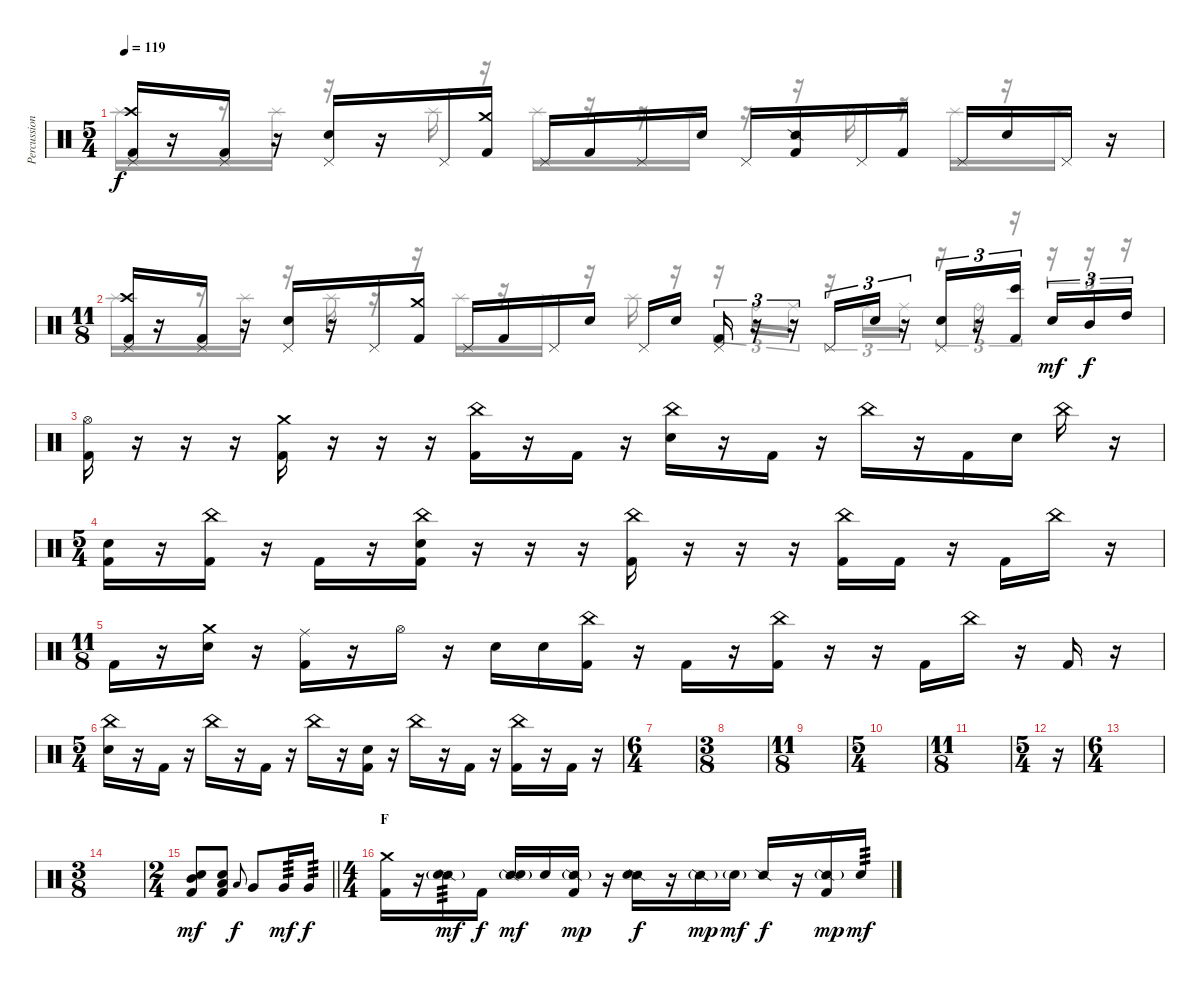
\track ("Percussion" "Percussion") {instrument percussion}
\staff {score}
\articulation defaults
\voice
\ts (5 4)
\tempo 119
\clef neutral
\ks c
("Crash high (hit)" "Pedal Hi-Hat (hit)" "Kick (hit) 2").16{dy f} r.16 ("Pedal Hi-Hat (hit)" "Kick (hit) 2").16 r.16 ("Pedal Hi-Hat (hit)" "Snare (hit) 2").16 r.16 "Pedal Hi-Hat (hit)".16 ("Crash medium (hit)" "Kick (hit) 2").16 "Pedal Hi-Hat (hit)".16 "Kick (hit) 2".16 "Pedal Hi-Hat (hit)".16 "Snare (hit) 2".16 "Pedal Hi-Hat (hit)".16 ("Snare (side stick) 2" "Kick (hit) 2").16 "Pedal Hi-Hat (hit)".16 "Kick (hit) 2".16 "Pedal Hi-Hat (hit)".16 "Snare (hit) 2".16 "Pedal Hi-Hat (hit)".16 r.16 |
\ts (11 8)
("Crash high (hit)" "Pedal Hi-Hat (hit)" "Kick (hit) 2").16 r.16 ("Pedal Hi-Hat (hit)" "Kick (hit) 2").16 r.16 ("Pedal Hi-Hat (hit)" "Snare (hit) 2").16 r.16 "Pedal Hi-Hat (hit)".16 ("Crash medium (hit)" "Kick (hit) 2").16 "Pedal Hi-Hat (hit)".16 "Kick (hit) 2".16 "Pedal Hi-Hat (hit)".16 "Snare (hit) 2".16 "Pedal Hi-Hat (hit)".16 "Snare (hit)".16 ("Pedal Hi-Hat (hit)" "Kick (hit) 2").16{tu (3 2)} r.16{tu (3 2)} r.16{tu (3 2)} "Pedal Hi-Hat (hit)".16{tu (3 2)} "Snare (hit) 2".16{tu (3 2)} r.16{tu (3 2)} ("Pedal Hi-Hat (hit)" "Snare (hit) 2").16{tu (3 2)} r.16{tu (3 2)} ("Bongo High (hit)" "Kick (hit) 2").16{tu (3 2)} "Snare (hit) 2".16{tu (3 2) dy mf} "Mid Tom (hit)".16{tu (3 2) dy f} "High Tom (hit)".16{tu (3 2)} |
("Hi-Hat (open)" "Kick (hit) 2").16 r.16 r.16 r.16 ("Crash medium (hit)" "Kick (hit) 2").16 r.16 r.16 r.16 ("China (hit)" "Kick (hit) 2").16 r.16 "Kick (hit) 2".16 r.16 ("China (hit)" "Snare (hit) 2").16 r.16 "Kick (hit) 2".16 r.16 "China (hit)".16 r.16 "Kick (hit) 2".16 "Snare (hit) 2".16 "China (hit)".16 r.16 |
\ts (5 4)
("Snare (hit) 2" "Kick (hit) 2").16 r.16 ("China (hit)" "Kick (hit) 2").16 r.16 "Kick (hit) 2".16 r.16 ("China (hit)" "Snare (hit) 2" "Kick (hit) 2").16 r.16 r.16 r.16 ("China (hit)" "Kick (hit) 2").16 r.16 r.16 r.16 ("China (hit)" "Kick (hit) 2").16 "Kick (hit) 2".16 r.16 "Kick (hit) 2".16 "China (hit)".16 r.16 |
\ts (11 8)
"Kick (hit) 2".16 r.16 ("Crash medium (hit)" "Snare (hit) 2").16 r.16 ("Ride (middle)" "Kick (hit) 2").16 r.16 "Hi-Hat (open)".16 r.16 "Snare (hit) 2".16 "Snare (hit) 2".16 ("China (hit)" "Kick (hit) 2").16 r.16 "Kick (hit) 2".16 r.16 ("China (hit)" "Kick (hit) 2").16 r.16 r.16 "Kick (hit) 2".16 "China (hit)".16 r.16 "Kick (hit) 2".16 r.16 |
\ts (5 4)
("China (hit)" "Snare (hit) 2").16 r.16 "Kick (hit) 2".16 r.16 "China (hit)".16 r.16 "Kick (hit) 2".16 r.16 "China (hit)".16 r.16 ("Snare (hit) 2" "Kick (hit) 2").16 r.16 "China (hit)".16 r.16 "Kick (hit) 2".16 r.16 ("China (hit)" "Kick (hit) 2").16 r.16 "Kick (hit) 2".16 r.16 |
\ts (6 4)
|
\ts (3 8)
|
\ts (11 8)
|
\ts (5 4)
|
\ts (11 8)
|
\ts (5 4)
r.16 |
\ts (6 4)
|
\ts (3 8)
|
\ts (2 4)
\barLineRight lightlight
("Mid Tom (hit)" "Snare (hit) 2" "Kick (hit) 2").8{dy mf} ("Snare (hit) 2" "Low Floor Tom (hit)" "Kick (hit) 2").8 "Low Tom (hit)".8{gr onbeat dy f} "Very Low Tom (hit)".8 "Very Low Tom (hit)".16{tp 3 dy mf} "Very Low Tom (hit)".16{tp 3 dy f} |
\ts (4 4)
\section ("" "F")
("Crash medium (hit)" "Kick (hit) 2").16 r.16 ("Snare (side stick) 2"{g} "Snare (hit) 2").16{tp 3 dy mf} "Kick (hit) 2".16{dy f} ("Snare (side stick) 2" "Snare (hit) 2"{g}).16{dy mf} "Snare (hit) 2".16 ("Snare (side stick) 2"{g} "Kick (hit) 2").16{dy mp} r.16 ("Snare (side stick) 2" "Snare (hit) 2").16{dy f} r.16 "Snare (side stick) 2"{g}.16{dy mp} "Snare (hit) 2"{g}.16{dy mf} "Snare (side stick) 2".16{dy f} r.16 ("Snare (side stick) 2"{g} "Kick (hit) 2").16{dy mp} "Snare (hit) 2".16{tp 3 dy mf}
\voice
\clef neutral
\ottava regular
\simile none
\ks c "Splash (hit)".16{dy f}
r.16 r.16 "Splash (hit)".16 r.16 r.16 "Splash (hit)".16 r.16 "Splash (hit)".16 r.16 r.16 "Splash (hit)".16 r.16 r.16 "Splash (hit)".16 r.16 "Splash (hit)".16 r.16 "Splash (hit)".16 r.16 |
"Splash (hit)".16 r.16 r.16 "Splash (hit)".16 r.16 "Splash (hit)".16 r.16 r.16 "Splash (hit)".16 r.16 "Splash (hit)".16 r.16 "Splash (hit)".16 r.16 r.16{tu (3 2)} "Ride (bell)".16{tu (3 2)} "Ride (middle)".16{tu (3 2)} r.16{tu (3 2)} "Ride (middle)".16{tu (3 2)} "Ride (middle)".16{tu (3 2)} r.16{tu (3 2)} "Ride (bell)".16{tu (3 2)} r.16{tu (3 2)} r.16{tu (3 2)} r.16{tu (3 2)} r.16{tu (3 2)} |
|
|
|
|
|
|
|
|
|
|
|
|
\barLineRight lightlight
|
